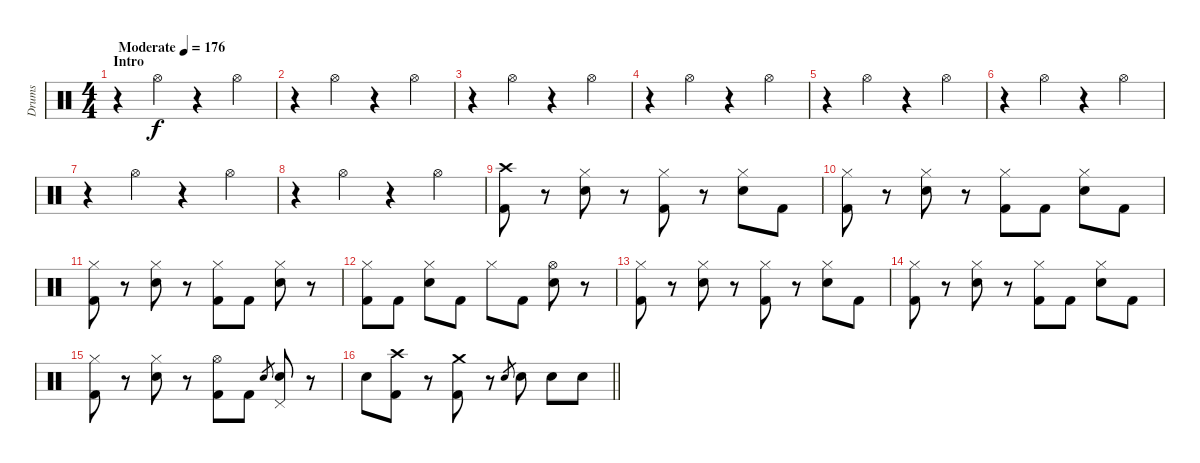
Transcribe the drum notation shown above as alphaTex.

\track ("Drums" "Drums") {instrument percussion}
\staff {score}
\articulation defaults
\ts (4 4)
\section ("" "Intro")
\tempo (176 "Moderate")
\clef neutral
\ks c
r.4{dy f} "Hi-Hat (open)".4 r.4 "Hi-Hat (open)".4 |
r.4 "Hi-Hat (open)".4 r.4 "Hi-Hat (open)".4 |
r.4 "Hi-Hat (open)".4 r.4 "Hi-Hat (open)".4 |
r.4 "Hi-Hat (open)".4 r.4 "Hi-Hat (open)".4 |
r.4 "Hi-Hat (open)".4 r.4 "Hi-Hat (open)".4 |
r.4 "Hi-Hat (open)".4 r.4 "Hi-Hat (open)".4 |
r.4 "Hi-Hat (open)".4 r.4 "Hi-Hat (open)".4 |
r.4 "Hi-Hat (open)".4 r.4 "Hi-Hat (open)".4 |
("Crash high (hit)" "Kick (hit) 2").8 r.8 ("Hi-Hat (closed)" "Electric Snare (hit)").8 r.8 ("Hi-Hat (closed)" "Kick (hit) 2").8 r.8 ("Hi-Hat (closed)" "Electric Snare (hit)").8 "Kick (hit) 2".8 |
("Hi-Hat (closed)" "Kick (hit) 2").8 r.8 ("Hi-Hat (closed)" "Electric Snare (hit)").8 r.8 ("Hi-Hat (closed)" "Kick (hit) 2").8 "Kick (hit) 2".8 ("Hi-Hat (closed)" "Electric Snare (hit)").8 "Kick (hit) 2".8 |
("Hi-Hat (closed)" "Kick (hit) 2").8 r.8 ("Hi-Hat (closed)" "Electric Snare (hit)").8 r.8 ("Hi-Hat (closed)" "Kick (hit) 2").8 "Kick (hit) 2".8 ("Hi-Hat (closed)" "Electric Snare (hit)").8 r.8 |
("Hi-Hat (closed)" "Kick (hit) 2").8 "Kick (hit) 2".8 ("Hi-Hat (closed)" "Electric Snare (hit)").8 "Kick (hit) 2".8 "Hi-Hat (closed)".8 "Kick (hit) 2".8 ("Hi-Hat (open)" "Electric Snare (hit)").8 r.8 |
("Hi-Hat (closed)" "Kick (hit) 2").8 r.8 ("Hi-Hat (closed)" "Electric Snare (hit)").8 r.8 ("Hi-Hat (closed)" "Kick (hit) 2").8 r.8 ("Hi-Hat (closed)" "Electric Snare (hit)").8 "Kick (hit) 2".8 |
("Hi-Hat (closed)" "Kick (hit) 2").8 r.8 ("Hi-Hat (closed)" "Electric Snare (hit)").8 r.8 ("Hi-Hat (closed)" "Kick (hit) 2").8 "Kick (hit) 2".8 ("Hi-Hat (closed)" "Electric Snare (hit)").8 "Kick (hit) 2".8 |
("Hi-Hat (closed)" "Kick (hit) 2").8 r.8 ("Hi-Hat (closed)" "Electric Snare (hit)").8 r.8 ("Hi-Hat (open)" "Kick (hit) 2").8 "Kick (hit) 2".8 "Electric Snare (hit)".8{gr} ("Pedal Hi-Hat (hit)" "Electric Snare (hit)").8 r.8 |
\barLineRight lightlight "Electric Snare (hit)".8
("Crash high (hit)" "Kick (hit) 2").8 r.8 ("Crash medium (hit)" "Kick (hit) 2").8 r.8 "Electric Snare (hit)".8{gr} "Electric Snare (hit)".8 "Electric Snare (hit)".8 "Electric Snare (hit)".8
